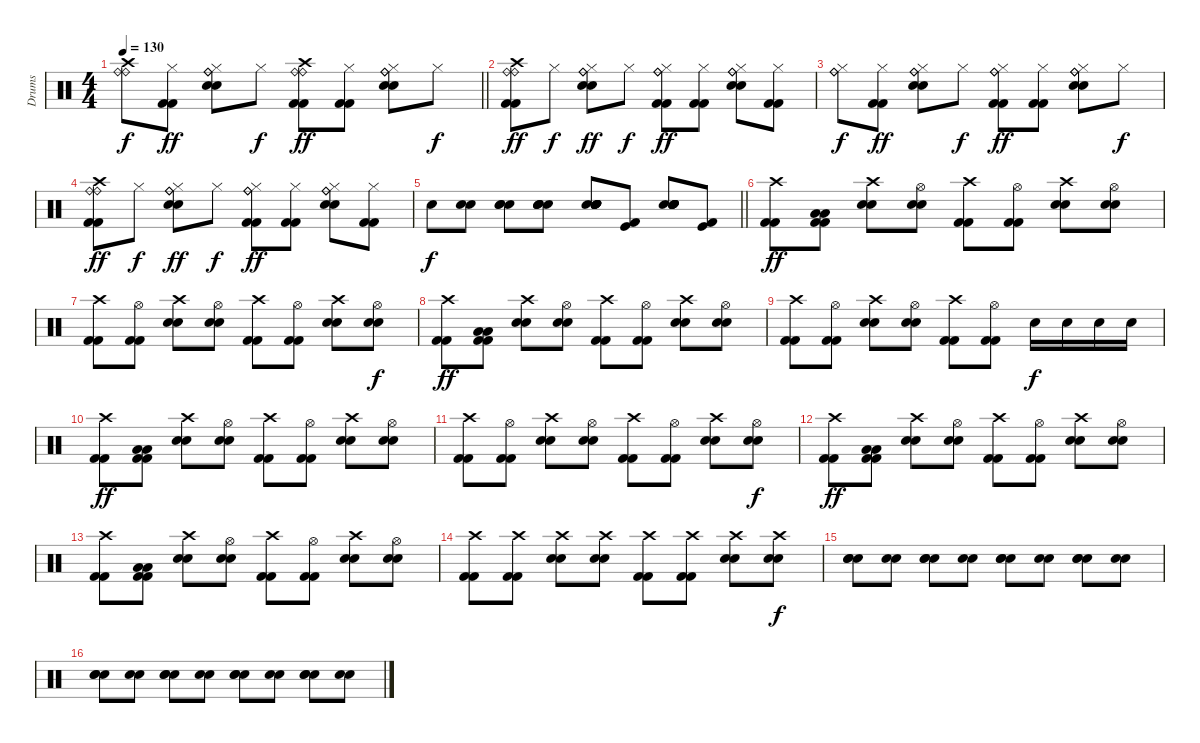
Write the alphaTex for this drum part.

\track ("Drums" "Drums") {instrument percussion}
\staff {score}
\articulation defaults
\ts (4 4)
\tempo 130
\clef neutral
\barLineRight lightlight
\ks c
("Ride (bell)" "Ride (bell)" "Crash high (hit)").8{dy f} ("Kick (hit) 2" "Kick (hit) 2" "Hi-Hat (closed)").8{dy ff} ("Electric Snare (hit)" "Electric Snare (hit)" "Ride (bell)" "Ride (bell)" "Hi-Hat (closed)").8 "Hi-Hat (closed)".8{dy f} ("Kick (hit) 2" "Kick (hit) 2" "Ride (bell)" "Ride (bell)" "Crash high (hit)").8{dy ff} ("Kick (hit) 2" "Kick (hit) 2" "Hi-Hat (closed)").8 ("Electric Snare (hit)" "Electric Snare (hit)" "Ride (bell)" "Ride (bell)" "Hi-Hat (closed)").8 "Hi-Hat (closed)".8{dy f} |
("Kick (hit) 2" "Kick (hit) 2" "Ride (bell)" "Ride (bell)" "Crash high (hit)").8{dy ff} "Hi-Hat (closed)".8{dy f} ("Electric Snare (hit)" "Electric Snare (hit)" "Ride (bell)" "Ride (bell)" "Hi-Hat (closed)").8{dy ff} "Hi-Hat (closed)".8{dy f} ("Kick (hit) 2" "Kick (hit) 2" "Ride (bell)" "Ride (bell)" "Hi-Hat (closed)").8{dy ff} ("Kick (hit) 2" "Kick (hit) 2" "Hi-Hat (closed)").8 ("Electric Snare (hit)" "Electric Snare (hit)" "Ride (bell)" "Ride (bell)" "Hi-Hat (closed)").8 ("Kick (hit) 2" "Kick (hit) 2" "Hi-Hat (closed)").8 |
("Ride (bell)" "Ride (bell)" "Hi-Hat (closed)").8{dy f} ("Kick (hit) 2" "Kick (hit) 2" "Hi-Hat (closed)").8{dy ff} ("Electric Snare (hit)" "Electric Snare (hit)" "Ride (bell)" "Ride (bell)" "Hi-Hat (closed)").8 "Hi-Hat (closed)".8{dy f} ("Kick (hit) 2" "Kick (hit) 2" "Ride (bell)" "Ride (bell)" "Hi-Hat (closed)").8{dy ff} ("Kick (hit) 2" "Kick (hit) 2" "Hi-Hat (closed)").8 ("Electric Snare (hit)" "Electric Snare (hit)" "Ride (bell)" "Ride (bell)" "Hi-Hat (closed)").8 "Hi-Hat (closed)".8{dy f} |
("Kick (hit) 2" "Kick (hit) 2" "Ride (bell)" "Ride (bell)" "Crash high (hit)").8{dy ff} "Hi-Hat (closed)".8{dy f} ("Electric Snare (hit)" "Electric Snare (hit)" "Ride (bell)" "Ride (bell)" "Hi-Hat (closed)").8{dy ff} "Hi-Hat (closed)".8{dy f} ("Kick (hit) 2" "Kick (hit) 2" "Ride (bell)" "Ride (bell)" "Hi-Hat (closed)").8{dy ff} ("Kick (hit) 2" "Kick (hit) 2" "Hi-Hat (closed)").8 ("Electric Snare (hit)" "Electric Snare (hit)" "Ride (bell)" "Ride (bell)" "Hi-Hat (closed)").8 ("Kick (hit) 2" "Kick (hit) 2" "Hi-Hat (closed)").8 |
\barLineRight lightlight "Electric Snare (hit)".8{dy f}
("Electric Snare (hit)" "Electric Snare (hit)").8 ("Electric Snare (hit)" "Electric Snare (hit)" "Electric Snare (hit)").8 ("Electric Snare (hit)" "Electric Snare (hit)" "Electric Snare (hit)" "Electric Snare (hit)").8 ("Electric Snare (hit)" "Electric Snare (hit)" "Electric Snare (hit)" "Snare (hit) 2" "Snare (hit) 2" "Snare (hit) 2").8 ("Kick (hit) 2" "Kick (hit)").8 ("Electric Snare (hit)" "Electric Snare (hit)" "Electric Snare (hit)" "Snare (hit) 2" "Snare (hit) 2" "Snare (hit) 2").8 ("Kick (hit) 2" "Kick (hit)").8 |
("Kick (hit) 2" "Kick (hit) 2" "Crash high (hit)").8{dy ff} ("Kick (hit) 2" "Kick (hit) 2" "Low Tom (hit)" "Low Tom (hit)").8 ("Electric Snare (hit)" "Electric Snare (hit)" "Crash high (hit)").8 ("Electric Snare (hit)" "Electric Snare (hit)" "Hi-Hat (open)").8 ("Kick (hit) 2" "Kick (hit) 2" "Crash high (hit)").8 ("Kick (hit) 2" "Kick (hit) 2" "Hi-Hat (open)").8 ("Electric Snare (hit)" "Electric Snare (hit)" "Crash high (hit)").8 ("Electric Snare (hit)" "Electric Snare (hit)" "Hi-Hat (open)").8 |
("Kick (hit) 2" "Kick (hit) 2" "Crash high (hit)").8 ("Kick (hit) 2" "Kick (hit) 2" "Hi-Hat (open)").8 ("Electric Snare (hit)" "Electric Snare (hit)" "Crash high (hit)").8 ("Electric Snare (hit)" "Electric Snare (hit)" "Hi-Hat (open)").8 ("Kick (hit) 2" "Kick (hit) 2" "Crash high (hit)").8 ("Kick (hit) 2" "Kick (hit) 2" "Hi-Hat (open)").8 ("Electric Snare (hit)" "Electric Snare (hit)" "Crash high (hit)").8 ("Electric Snare (hit)" "Electric Snare (hit)" "Hi-Hat (open)").8{dy f} |
("Kick (hit) 2" "Kick (hit) 2" "Crash high (hit)").8{dy ff} ("Kick (hit) 2" "Kick (hit) 2" "Low Tom (hit)" "Low Tom (hit)").8 ("Electric Snare (hit)" "Electric Snare (hit)" "Crash high (hit)").8 ("Electric Snare (hit)" "Electric Snare (hit)" "Hi-Hat (open)").8 ("Kick (hit) 2" "Kick (hit) 2" "Crash high (hit)").8 ("Kick (hit) 2" "Kick (hit) 2" "Hi-Hat (open)").8 ("Electric Snare (hit)" "Electric Snare (hit)" "Crash high (hit)").8 ("Electric Snare (hit)" "Electric Snare (hit)" "Hi-Hat (open)").8 |
("Kick (hit) 2" "Kick (hit) 2" "Crash high (hit)").8 ("Kick (hit) 2" "Kick (hit) 2" "Hi-Hat (open)").8 ("Electric Snare (hit)" "Electric Snare (hit)" "Crash high (hit)").8 ("Electric Snare (hit)" "Electric Snare (hit)" "Hi-Hat (open)").8 ("Kick (hit) 2" "Kick (hit) 2" "Crash high (hit)").8 ("Kick (hit) 2" "Kick (hit) 2" "Hi-Hat (open)").8 "Electric Snare (hit)".16{dy f} "Electric Snare (hit)".16 "Electric Snare (hit)".16 "Electric Snare (hit)".16 |
("Kick (hit) 2" "Kick (hit) 2" "Crash high (hit)").8{dy ff} ("Kick (hit) 2" "Kick (hit) 2" "Low Tom (hit)" "Low Tom (hit)").8 ("Electric Snare (hit)" "Electric Snare (hit)" "Crash high (hit)").8 ("Electric Snare (hit)" "Electric Snare (hit)" "Hi-Hat (open)").8 ("Kick (hit) 2" "Kick (hit) 2" "Crash high (hit)").8 ("Kick (hit) 2" "Kick (hit) 2" "Hi-Hat (open)").8 ("Electric Snare (hit)" "Electric Snare (hit)" "Crash high (hit)").8 ("Electric Snare (hit)" "Electric Snare (hit)" "Hi-Hat (open)").8 |
("Kick (hit) 2" "Kick (hit) 2" "Crash high (hit)").8 ("Kick (hit) 2" "Kick (hit) 2" "Hi-Hat (open)").8 ("Electric Snare (hit)" "Electric Snare (hit)" "Crash high (hit)").8 ("Electric Snare (hit)" "Electric Snare (hit)" "Hi-Hat (open)").8 ("Kick (hit) 2" "Kick (hit) 2" "Crash high (hit)").8 ("Kick (hit) 2" "Kick (hit) 2" "Hi-Hat (open)").8 ("Electric Snare (hit)" "Electric Snare (hit)" "Crash high (hit)").8 ("Electric Snare (hit)" "Electric Snare (hit)" "Hi-Hat (open)").8{dy f} |
("Kick (hit) 2" "Kick (hit) 2" "Crash high (hit)").8{dy ff} ("Kick (hit) 2" "Kick (hit) 2" "Low Tom (hit)" "Low Tom (hit)").8 ("Electric Snare (hit)" "Electric Snare (hit)" "Crash high (hit)").8 ("Electric Snare (hit)" "Electric Snare (hit)" "Hi-Hat (open)").8 ("Kick (hit) 2" "Kick (hit) 2" "Crash high (hit)").8 ("Kick (hit) 2" "Kick (hit) 2" "Hi-Hat (open)").8 ("Electric Snare (hit)" "Electric Snare (hit)" "Crash high (hit)").8 ("Electric Snare (hit)" "Electric Snare (hit)" "Hi-Hat (open)").8 |
("Kick (hit) 2" "Kick (hit) 2" "Crash high (hit)").8 ("Kick (hit) 2" "Kick (hit) 2" "Low Tom (hit)" "Low Tom (hit)").8 ("Electric Snare (hit)" "Electric Snare (hit)" "Crash high (hit)").8 ("Electric Snare (hit)" "Electric Snare (hit)" "Hi-Hat (open)").8 ("Kick (hit) 2" "Kick (hit) 2" "Crash high (hit)").8 ("Kick (hit) 2" "Kick (hit) 2" "Hi-Hat (open)").8 ("Electric Snare (hit)" "Electric Snare (hit)" "Crash high (hit)").8 ("Electric Snare (hit)" "Electric Snare (hit)" "Hi-Hat (open)").8 |
("Kick (hit) 2" "Kick (hit) 2" "Crash high (hit)").8 ("Kick (hit) 2" "Kick (hit) 2" "Crash high (hit)").8 ("Electric Snare (hit)" "Electric Snare (hit)" "Crash high (hit)").8 ("Electric Snare (hit)" "Electric Snare (hit)" "Crash high (hit)").8 ("Kick (hit) 2" "Kick (hit) 2" "Crash high (hit)").8 ("Kick (hit) 2" "Kick (hit) 2" "Crash high (hit)").8 ("Electric Snare (hit)" "Electric Snare (hit)" "Crash high (hit)").8 ("Electric Snare (hit)" "Electric Snare (hit)" "Crash high (hit)").8{dy f} |
("Snare (hit) 2" "Snare (hit) 2" "Electric Snare (hit)").8 ("Electric Snare (hit)" "Electric Snare (hit)").8 ("Snare (hit) 2" "Electric Snare (hit)" "Electric Snare (hit)").8 ("Electric Snare (hit)" "Electric Snare (hit)").8 ("Snare (hit) 2" "Snare (hit) 2" "Electric Snare (hit)").8 ("Electric Snare (hit)" "Electric Snare (hit)").8 ("Snare (hit) 2" "Electric Snare (hit)" "Electric Snare (hit)").8 ("Electric Snare (hit)" "Electric Snare (hit)").8 |
("Snare (hit) 2" "Snare (hit) 2" "Electric Snare (hit)").8 ("Electric Snare (hit)" "Electric Snare (hit)").8 ("Snare (hit) 2" "Electric Snare (hit)" "Electric Snare (hit)").8 ("Electric Snare (hit)" "Electric Snare (hit)").8 ("Snare (hit) 2" "Snare (hit) 2" "Electric Snare (hit)").8 ("Electric Snare (hit)" "Electric Snare (hit)").8 ("Snare (hit) 2" "Electric Snare (hit)" "Electric Snare (hit)").8 ("Electric Snare (hit)" "Electric Snare (hit)").8
